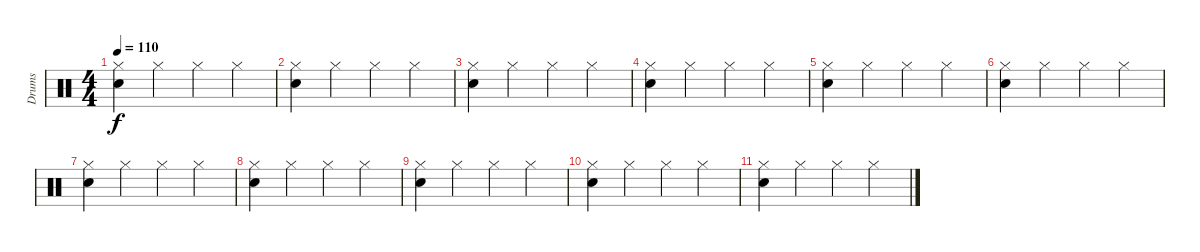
\track ("Drums" "Drums") {instrument percussion}
\staff {score}
\articulation defaults
\ts (4 4)
\tempo 110
\clef neutral
\ks c
("Snare (hit) 2" "Hi-Hat (closed)").4{dy f} "Hi-Hat (closed)".4 "Hi-Hat (closed)".4 "Hi-Hat (closed)".4 |
("Snare (hit) 2" "Hi-Hat (closed)").4 "Hi-Hat (closed)".4 "Hi-Hat (closed)".4 "Hi-Hat (closed)".4 |
("Snare (hit) 2" "Hi-Hat (closed)").4 "Hi-Hat (closed)".4 "Hi-Hat (closed)".4 "Hi-Hat (closed)".4 |
("Snare (hit) 2" "Hi-Hat (closed)").4 "Hi-Hat (closed)".4 "Hi-Hat (closed)".4 "Hi-Hat (closed)".4 |
("Snare (hit) 2" "Hi-Hat (closed)").4 "Hi-Hat (closed)".4 "Hi-Hat (closed)".4 "Hi-Hat (closed)".4 |
("Snare (hit) 2" "Hi-Hat (closed)").4 "Hi-Hat (closed)".4 "Hi-Hat (closed)".4 "Hi-Hat (closed)".4 |
("Snare (hit) 2" "Hi-Hat (closed)").4 "Hi-Hat (closed)".4 "Hi-Hat (closed)".4 "Hi-Hat (closed)".4 |
("Snare (hit) 2" "Hi-Hat (closed)").4 "Hi-Hat (closed)".4 "Hi-Hat (closed)".4 "Hi-Hat (closed)".4 |
("Snare (hit) 2" "Hi-Hat (closed)").4 "Hi-Hat (closed)".4 "Hi-Hat (closed)".4 "Hi-Hat (closed)".4 |
("Snare (hit) 2" "Hi-Hat (closed)").4 "Hi-Hat (closed)".4 "Hi-Hat (closed)".4 "Hi-Hat (closed)".4 |
("Snare (hit) 2" "Hi-Hat (closed)").4 "Hi-Hat (closed)".4 "Hi-Hat (closed)".4 "Hi-Hat (closed)".4
